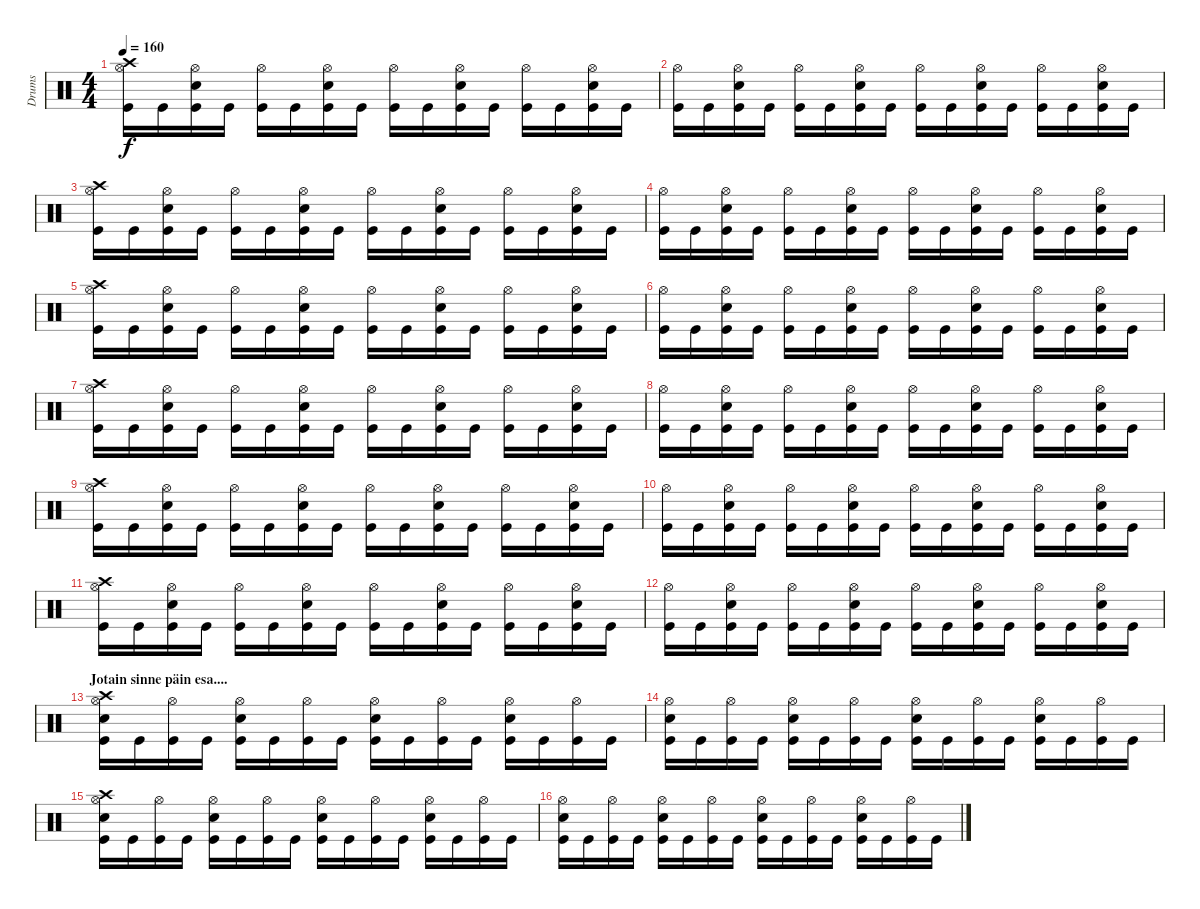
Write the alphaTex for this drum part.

\track ("Drums" "Drums") {instrument percussion}
\staff {score}
\articulation defaults
\ts (4 4)
\tempo 160
\clef neutral
\ks c
("Crash high (hit)" "Hi-Hat (open)" "Kick (hit)").16{dy f} "Kick (hit)".16 ("Hi-Hat (open)" "Electric Snare (hit)" "Kick (hit)").16 "Kick (hit)".16 ("Hi-Hat (open)" "Kick (hit)").16 "Kick (hit)".16 ("Hi-Hat (open)" "Electric Snare (hit)" "Kick (hit)").16 "Kick (hit)".16 ("Hi-Hat (open)" "Kick (hit)").16 "Kick (hit)".16 ("Hi-Hat (open)" "Electric Snare (hit)" "Kick (hit)").16 "Kick (hit)".16 ("Hi-Hat (open)" "Kick (hit)").16 "Kick (hit)".16 ("Hi-Hat (open)" "Electric Snare (hit)" "Kick (hit)").16 "Kick (hit)".16 |
("Hi-Hat (open)" "Kick (hit)").16 "Kick (hit)".16 ("Hi-Hat (open)" "Electric Snare (hit)" "Kick (hit)").16 "Kick (hit)".16 ("Hi-Hat (open)" "Kick (hit)").16 "Kick (hit)".16 ("Hi-Hat (open)" "Electric Snare (hit)" "Kick (hit)").16 "Kick (hit)".16 ("Hi-Hat (open)" "Kick (hit)").16 "Kick (hit)".16 ("Hi-Hat (open)" "Electric Snare (hit)" "Kick (hit)").16 "Kick (hit)".16 ("Hi-Hat (open)" "Kick (hit)").16 "Kick (hit)".16 ("Hi-Hat (open)" "Electric Snare (hit)" "Kick (hit)").16 "Kick (hit)".16 |
("Crash high (hit)" "Hi-Hat (open)" "Kick (hit)").16 "Kick (hit)".16 ("Hi-Hat (open)" "Electric Snare (hit)" "Kick (hit)").16 "Kick (hit)".16 ("Hi-Hat (open)" "Kick (hit)").16 "Kick (hit)".16 ("Hi-Hat (open)" "Electric Snare (hit)" "Kick (hit)").16 "Kick (hit)".16 ("Hi-Hat (open)" "Kick (hit)").16 "Kick (hit)".16 ("Hi-Hat (open)" "Electric Snare (hit)" "Kick (hit)").16 "Kick (hit)".16 ("Hi-Hat (open)" "Kick (hit)").16 "Kick (hit)".16 ("Hi-Hat (open)" "Electric Snare (hit)" "Kick (hit)").16 "Kick (hit)".16 |
("Hi-Hat (open)" "Kick (hit)").16 "Kick (hit)".16 ("Hi-Hat (open)" "Electric Snare (hit)" "Kick (hit)").16 "Kick (hit)".16 ("Hi-Hat (open)" "Kick (hit)").16 "Kick (hit)".16 ("Hi-Hat (open)" "Electric Snare (hit)" "Kick (hit)").16 "Kick (hit)".16 ("Hi-Hat (open)" "Kick (hit)").16 "Kick (hit)".16 ("Hi-Hat (open)" "Electric Snare (hit)" "Kick (hit)").16 "Kick (hit)".16 ("Hi-Hat (open)" "Kick (hit)").16 "Kick (hit)".16 ("Hi-Hat (open)" "Electric Snare (hit)" "Kick (hit)").16 "Kick (hit)".16 |
("Crash high (hit)" "Hi-Hat (open)" "Kick (hit)").16 "Kick (hit)".16 ("Hi-Hat (open)" "Electric Snare (hit)" "Kick (hit)").16 "Kick (hit)".16 ("Hi-Hat (open)" "Kick (hit)").16 "Kick (hit)".16 ("Hi-Hat (open)" "Electric Snare (hit)" "Kick (hit)").16 "Kick (hit)".16 ("Hi-Hat (open)" "Kick (hit)").16 "Kick (hit)".16 ("Hi-Hat (open)" "Electric Snare (hit)" "Kick (hit)").16 "Kick (hit)".16 ("Hi-Hat (open)" "Kick (hit)").16 "Kick (hit)".16 ("Hi-Hat (open)" "Electric Snare (hit)" "Kick (hit)").16 "Kick (hit)".16 |
("Hi-Hat (open)" "Kick (hit)").16 "Kick (hit)".16 ("Hi-Hat (open)" "Electric Snare (hit)" "Kick (hit)").16 "Kick (hit)".16 ("Hi-Hat (open)" "Kick (hit)").16 "Kick (hit)".16 ("Hi-Hat (open)" "Electric Snare (hit)" "Kick (hit)").16 "Kick (hit)".16 ("Hi-Hat (open)" "Kick (hit)").16 "Kick (hit)".16 ("Hi-Hat (open)" "Electric Snare (hit)" "Kick (hit)").16 "Kick (hit)".16 ("Hi-Hat (open)" "Kick (hit)").16 "Kick (hit)".16 ("Hi-Hat (open)" "Electric Snare (hit)" "Kick (hit)").16 "Kick (hit)".16 |
("Crash high (hit)" "Hi-Hat (open)" "Kick (hit)").16 "Kick (hit)".16 ("Hi-Hat (open)" "Electric Snare (hit)" "Kick (hit)").16 "Kick (hit)".16 ("Hi-Hat (open)" "Kick (hit)").16 "Kick (hit)".16 ("Hi-Hat (open)" "Electric Snare (hit)" "Kick (hit)").16 "Kick (hit)".16 ("Hi-Hat (open)" "Kick (hit)").16 "Kick (hit)".16 ("Hi-Hat (open)" "Electric Snare (hit)" "Kick (hit)").16 "Kick (hit)".16 ("Hi-Hat (open)" "Kick (hit)").16 "Kick (hit)".16 ("Hi-Hat (open)" "Electric Snare (hit)" "Kick (hit)").16 "Kick (hit)".16 |
("Hi-Hat (open)" "Kick (hit)").16 "Kick (hit)".16 ("Hi-Hat (open)" "Electric Snare (hit)" "Kick (hit)").16 "Kick (hit)".16 ("Hi-Hat (open)" "Kick (hit)").16 "Kick (hit)".16 ("Hi-Hat (open)" "Electric Snare (hit)" "Kick (hit)").16 "Kick (hit)".16 ("Hi-Hat (open)" "Kick (hit)").16 "Kick (hit)".16 ("Hi-Hat (open)" "Electric Snare (hit)" "Kick (hit)").16 "Kick (hit)".16 ("Hi-Hat (open)" "Kick (hit)").16 "Kick (hit)".16 ("Hi-Hat (open)" "Electric Snare (hit)" "Kick (hit)").16 "Kick (hit)".16 |
("Crash high (hit)" "Hi-Hat (open)" "Kick (hit)").16 "Kick (hit)".16 ("Hi-Hat (open)" "Electric Snare (hit)" "Kick (hit)").16 "Kick (hit)".16 ("Hi-Hat (open)" "Kick (hit)").16 "Kick (hit)".16 ("Hi-Hat (open)" "Electric Snare (hit)" "Kick (hit)").16 "Kick (hit)".16 ("Hi-Hat (open)" "Kick (hit)").16 "Kick (hit)".16 ("Hi-Hat (open)" "Electric Snare (hit)" "Kick (hit)").16 "Kick (hit)".16 ("Hi-Hat (open)" "Kick (hit)").16 "Kick (hit)".16 ("Hi-Hat (open)" "Electric Snare (hit)" "Kick (hit)").16 "Kick (hit)".16 |
("Hi-Hat (open)" "Kick (hit)").16 "Kick (hit)".16 ("Hi-Hat (open)" "Electric Snare (hit)" "Kick (hit)").16 "Kick (hit)".16 ("Hi-Hat (open)" "Kick (hit)").16 "Kick (hit)".16 ("Hi-Hat (open)" "Electric Snare (hit)" "Kick (hit)").16 "Kick (hit)".16 ("Hi-Hat (open)" "Kick (hit)").16 "Kick (hit)".16 ("Hi-Hat (open)" "Electric Snare (hit)" "Kick (hit)").16 "Kick (hit)".16 ("Hi-Hat (open)" "Kick (hit)").16 "Kick (hit)".16 ("Hi-Hat (open)" "Electric Snare (hit)" "Kick (hit)").16 "Kick (hit)".16 |
("Crash high (hit)" "Hi-Hat (open)" "Kick (hit)").16 "Kick (hit)".16 ("Hi-Hat (open)" "Electric Snare (hit)" "Kick (hit)").16 "Kick (hit)".16 ("Hi-Hat (open)" "Kick (hit)").16 "Kick (hit)".16 ("Hi-Hat (open)" "Electric Snare (hit)" "Kick (hit)").16 "Kick (hit)".16 ("Hi-Hat (open)" "Kick (hit)").16 "Kick (hit)".16 ("Hi-Hat (open)" "Electric Snare (hit)" "Kick (hit)").16 "Kick (hit)".16 ("Hi-Hat (open)" "Kick (hit)").16 "Kick (hit)".16 ("Hi-Hat (open)" "Electric Snare (hit)" "Kick (hit)").16 "Kick (hit)".16 |
("Hi-Hat (open)" "Kick (hit)").16 "Kick (hit)".16 ("Hi-Hat (open)" "Electric Snare (hit)" "Kick (hit)").16 "Kick (hit)".16 ("Hi-Hat (open)" "Kick (hit)").16 "Kick (hit)".16 ("Hi-Hat (open)" "Electric Snare (hit)" "Kick (hit)").16 "Kick (hit)".16 ("Hi-Hat (open)" "Kick (hit)").16 "Kick (hit)".16 ("Hi-Hat (open)" "Electric Snare (hit)" "Kick (hit)").16 "Kick (hit)".16 ("Hi-Hat (open)" "Kick (hit)").16 "Kick (hit)".16 ("Hi-Hat (open)" "Electric Snare (hit)" "Kick (hit)").16 "Kick (hit)".16 |
\section ("" "Jotain sinne päin esa....")
("Electric Snare (hit)" "Crash high (hit)" "Hi-Hat (open)" "Kick (hit)").16 "Kick (hit)".16 ("Hi-Hat (open)" "Kick (hit)").16 "Kick (hit)".16 ("Electric Snare (hit)" "Hi-Hat (open)" "Kick (hit)").16 "Kick (hit)".16 ("Hi-Hat (open)" "Kick (hit)").16 "Kick (hit)".16 ("Electric Snare (hit)" "Hi-Hat (open)" "Kick (hit)").16 "Kick (hit)".16 ("Hi-Hat (open)" "Kick (hit)").16 "Kick (hit)".16 ("Electric Snare (hit)" "Hi-Hat (open)" "Kick (hit)").16 "Kick (hit)".16 ("Hi-Hat (open)" "Kick (hit)").16 "Kick (hit)".16 |
("Electric Snare (hit)" "Hi-Hat (open)" "Kick (hit)").16 "Kick (hit)".16 ("Hi-Hat (open)" "Kick (hit)").16 "Kick (hit)".16 ("Electric Snare (hit)" "Hi-Hat (open)" "Kick (hit)").16 "Kick (hit)".16 ("Hi-Hat (open)" "Kick (hit)").16 "Kick (hit)".16 ("Electric Snare (hit)" "Hi-Hat (open)" "Kick (hit)").16 "Kick (hit)".16 ("Hi-Hat (open)" "Kick (hit)").16 "Kick (hit)".16 ("Electric Snare (hit)" "Hi-Hat (open)" "Kick (hit)").16 "Kick (hit)".16 ("Hi-Hat (open)" "Kick (hit)").16 "Kick (hit)".16 |
("Electric Snare (hit)" "Crash high (hit)" "Hi-Hat (open)" "Kick (hit)").16 "Kick (hit)".16 ("Hi-Hat (open)" "Kick (hit)").16 "Kick (hit)".16 ("Electric Snare (hit)" "Hi-Hat (open)" "Kick (hit)").16 "Kick (hit)".16 ("Hi-Hat (open)" "Kick (hit)").16 "Kick (hit)".16 ("Electric Snare (hit)" "Hi-Hat (open)" "Kick (hit)").16 "Kick (hit)".16 ("Hi-Hat (open)" "Kick (hit)").16 "Kick (hit)".16 ("Electric Snare (hit)" "Hi-Hat (open)" "Kick (hit)").16 "Kick (hit)".16 ("Hi-Hat (open)" "Kick (hit)").16 "Kick (hit)".16 |
("Electric Snare (hit)" "Hi-Hat (open)" "Kick (hit)").16 "Kick (hit)".16 ("Hi-Hat (open)" "Kick (hit)").16 "Kick (hit)".16 ("Electric Snare (hit)" "Hi-Hat (open)" "Kick (hit)").16 "Kick (hit)".16 ("Hi-Hat (open)" "Kick (hit)").16 "Kick (hit)".16 ("Electric Snare (hit)" "Hi-Hat (open)" "Kick (hit)").16 "Kick (hit)".16 ("Hi-Hat (open)" "Kick (hit)").16 "Kick (hit)".16 ("Electric Snare (hit)" "Hi-Hat (open)" "Kick (hit)").16 "Kick (hit)".16 ("Hi-Hat (open)" "Kick (hit)").16 "Kick (hit)".16
